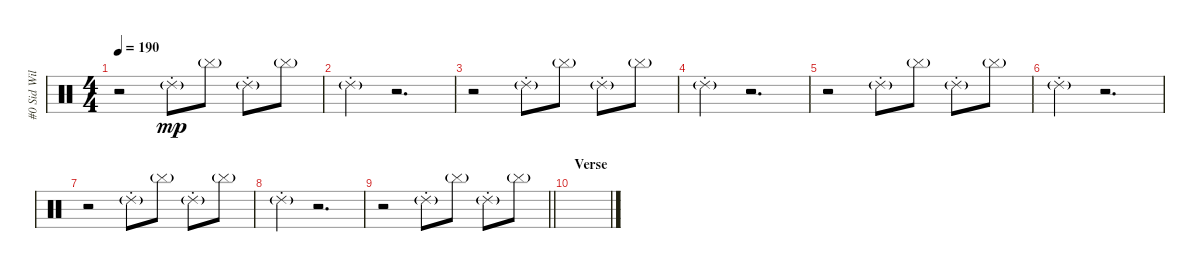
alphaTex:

\track ("#0 Sid Wilson" "#0 Sid Wil") {instrument percussion}
\staff {score}
\articulation defaults
\ts (4 4)
\tempo 190
\clef neutral
\ks c
r.2{dy mp} "Ride (choke) 2"{g}.8 "Cymbal (hit)"{g}.8 "Ride (choke) 2"{g}.8 "Cymbal (hit)"{g}.8 |
"Ride (choke) 2"{g}.4 r.2{d} |
r.2 "Ride (choke) 2"{g}.8 "Cymbal (hit)"{g}.8 "Ride (choke) 2"{g}.8 "Cymbal (hit)"{g}.8 |
"Ride (choke) 2"{g}.4 r.2{d} |
r.2 "Ride (choke) 2"{g}.8 "Cymbal (hit)"{g}.8 "Ride (choke) 2"{g}.8 "Cymbal (hit)"{g}.8 |
"Ride (choke) 2"{g}.4 r.2{d} |
r.2 "Ride (choke) 2"{g}.8 "Cymbal (hit)"{g}.8 "Ride (choke) 2"{g}.8 "Cymbal (hit)"{g}.8 |
"Ride (choke) 2"{g}.4 r.2{d} |
\barLineRight lightlight
r.2 "Ride (choke) 2"{g}.8 "Cymbal (hit)"{g}.8 "Ride (choke) 2"{g}.8 "Cymbal (hit)"{g}.8 |
\section ("" "Verse")
